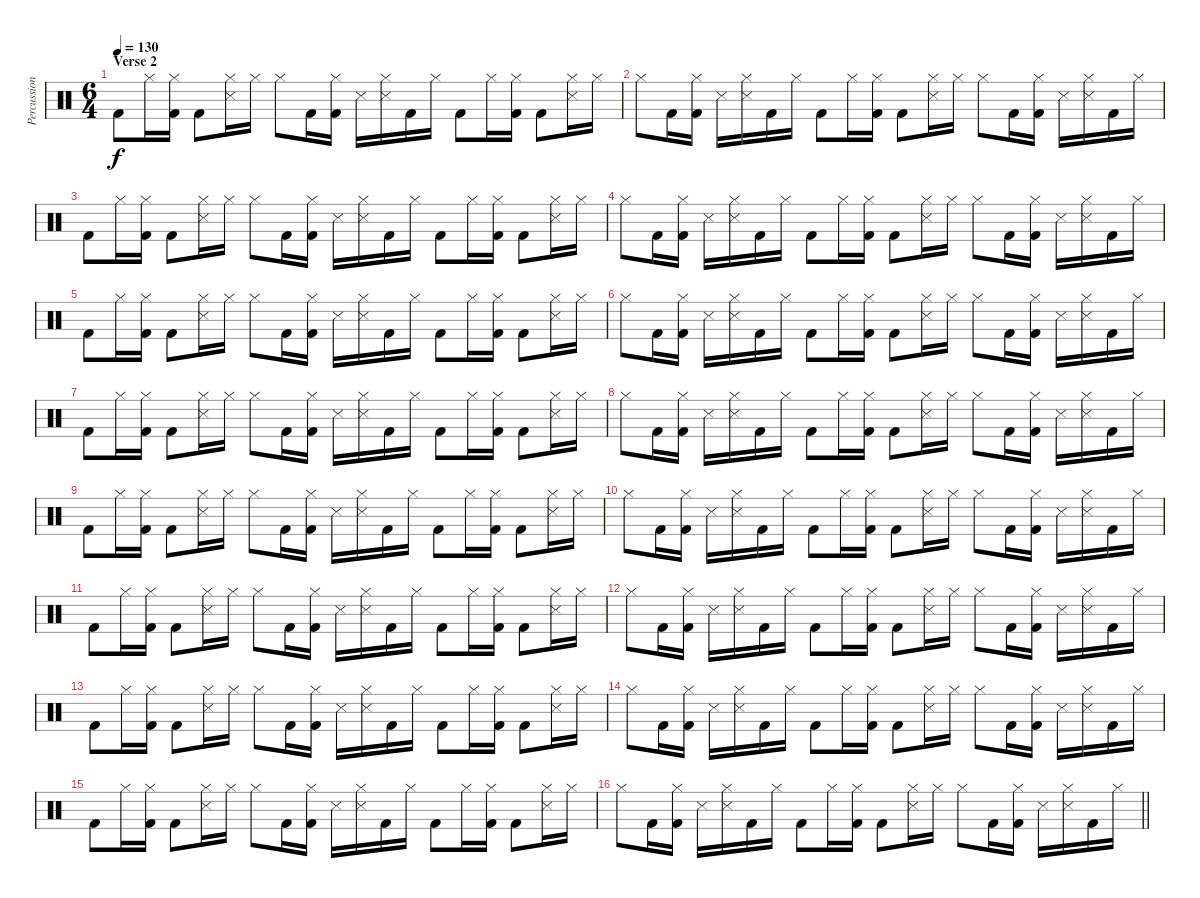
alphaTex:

\track ("Percussion" "Percussion") {instrument percussion}
\staff {score}
\articulation defaults
\ts (6 4)
\section ("" "Verse 2")
\tempo 130
\clef neutral
\ks c "Kick (hit) 2".8{dy f} "Hi-Hat (closed)".16
("Hi-Hat (closed)" "Kick (hit) 2").16 "Kick (hit) 2".8 ("Hi-Hat (closed)" "Snare (side stick) 3").16 "Hi-Hat (closed)".16 "Hi-Hat (closed)".8 "Kick (hit) 2".16 ("Hi-Hat (closed)" "Kick (hit) 2").16 "Snare (side stick) 3".16 ("Hi-Hat (closed)" "Snare (side stick) 3").16 "Kick (hit) 2".16 "Hi-Hat (closed)".16 "Kick (hit) 2".8 "Hi-Hat (closed)".16 ("Hi-Hat (closed)" "Kick (hit) 2").16 "Kick (hit) 2".8 ("Hi-Hat (closed)" "Snare (side stick) 3").16 "Hi-Hat (closed)".16 |
"Hi-Hat (closed)".8 "Kick (hit) 2".16 ("Hi-Hat (closed)" "Kick (hit) 2").16 "Snare (side stick) 3".16 ("Hi-Hat (closed)" "Snare (side stick) 3").16 "Kick (hit) 2".16 "Hi-Hat (closed)".16 "Kick (hit) 2".8 "Hi-Hat (closed)".16 ("Hi-Hat (closed)" "Kick (hit) 2").16 "Kick (hit) 2".8 ("Hi-Hat (closed)" "Snare (side stick) 3").16 "Hi-Hat (closed)".16 "Hi-Hat (closed)".8 "Kick (hit) 2".16 ("Hi-Hat (closed)" "Kick (hit) 2").16 "Snare (side stick) 3".16 ("Hi-Hat (closed)" "Snare (side stick) 3").16 "Kick (hit) 2".16 "Hi-Hat (closed)".16 |
"Kick (hit) 2".8 "Hi-Hat (closed)".16 ("Hi-Hat (closed)" "Kick (hit) 2").16 "Kick (hit) 2".8 ("Hi-Hat (closed)" "Snare (side stick) 3").16 "Hi-Hat (closed)".16 "Hi-Hat (closed)".8 "Kick (hit) 2".16 ("Hi-Hat (closed)" "Kick (hit) 2").16 "Snare (side stick) 3".16 ("Hi-Hat (closed)" "Snare (side stick) 3").16 "Kick (hit) 2".16 "Hi-Hat (closed)".16 "Kick (hit) 2".8 "Hi-Hat (closed)".16 ("Hi-Hat (closed)" "Kick (hit) 2").16 "Kick (hit) 2".8 ("Hi-Hat (closed)" "Snare (side stick) 3").16 "Hi-Hat (closed)".16 |
"Hi-Hat (closed)".8 "Kick (hit) 2".16 ("Hi-Hat (closed)" "Kick (hit) 2").16 "Snare (side stick) 3".16 ("Hi-Hat (closed)" "Snare (side stick) 3").16 "Kick (hit) 2".16 "Hi-Hat (closed)".16 "Kick (hit) 2".8 "Hi-Hat (closed)".16 ("Hi-Hat (closed)" "Kick (hit) 2").16 "Kick (hit) 2".8 ("Hi-Hat (closed)" "Snare (side stick) 3").16 "Hi-Hat (closed)".16 "Hi-Hat (closed)".8 "Kick (hit) 2".16 ("Hi-Hat (closed)" "Kick (hit) 2").16 "Snare (side stick) 3".16 ("Hi-Hat (closed)" "Snare (side stick) 3").16 "Kick (hit) 2".16 "Hi-Hat (closed)".16 |
"Kick (hit) 2".8 "Hi-Hat (closed)".16 ("Hi-Hat (closed)" "Kick (hit) 2").16 "Kick (hit) 2".8 ("Hi-Hat (closed)" "Snare (side stick) 3").16 "Hi-Hat (closed)".16 "Hi-Hat (closed)".8 "Kick (hit) 2".16 ("Hi-Hat (closed)" "Kick (hit) 2").16 "Snare (side stick) 3".16 ("Hi-Hat (closed)" "Snare (side stick) 3").16 "Kick (hit) 2".16 "Hi-Hat (closed)".16 "Kick (hit) 2".8 "Hi-Hat (closed)".16 ("Hi-Hat (closed)" "Kick (hit) 2").16 "Kick (hit) 2".8 ("Hi-Hat (closed)" "Snare (side stick) 3").16 "Hi-Hat (closed)".16 |
"Hi-Hat (closed)".8 "Kick (hit) 2".16 ("Hi-Hat (closed)" "Kick (hit) 2").16 "Snare (side stick) 3".16 ("Hi-Hat (closed)" "Snare (side stick) 3").16 "Kick (hit) 2".16 "Hi-Hat (closed)".16 "Kick (hit) 2".8 "Hi-Hat (closed)".16 ("Hi-Hat (closed)" "Kick (hit) 2").16 "Kick (hit) 2".8 ("Hi-Hat (closed)" "Snare (side stick) 3").16 "Hi-Hat (closed)".16 "Hi-Hat (closed)".8 "Kick (hit) 2".16 ("Hi-Hat (closed)" "Kick (hit) 2").16 "Snare (side stick) 3".16 ("Hi-Hat (closed)" "Snare (side stick) 3").16 "Kick (hit) 2".16 "Hi-Hat (closed)".16 |
"Kick (hit) 2".8 "Hi-Hat (closed)".16 ("Hi-Hat (closed)" "Kick (hit) 2").16 "Kick (hit) 2".8 ("Hi-Hat (closed)" "Snare (side stick) 3").16 "Hi-Hat (closed)".16 "Hi-Hat (closed)".8 "Kick (hit) 2".16 ("Hi-Hat (closed)" "Kick (hit) 2").16 "Snare (side stick) 3".16 ("Hi-Hat (closed)" "Snare (side stick) 3").16 "Kick (hit) 2".16 "Hi-Hat (closed)".16 "Kick (hit) 2".8 "Hi-Hat (closed)".16 ("Hi-Hat (closed)" "Kick (hit) 2").16 "Kick (hit) 2".8 ("Hi-Hat (closed)" "Snare (side stick) 3").16 "Hi-Hat (closed)".16 |
"Hi-Hat (closed)".8 "Kick (hit) 2".16 ("Hi-Hat (closed)" "Kick (hit) 2").16 "Snare (side stick) 3".16 ("Hi-Hat (closed)" "Snare (side stick) 3").16 "Kick (hit) 2".16 "Hi-Hat (closed)".16 "Kick (hit) 2".8 "Hi-Hat (closed)".16 ("Hi-Hat (closed)" "Kick (hit) 2").16 "Kick (hit) 2".8 ("Hi-Hat (closed)" "Snare (side stick) 3").16 "Hi-Hat (closed)".16 "Hi-Hat (closed)".8 "Kick (hit) 2".16 ("Hi-Hat (closed)" "Kick (hit) 2").16 "Snare (side stick) 3".16 ("Hi-Hat (closed)" "Snare (side stick) 3").16 "Kick (hit) 2".16 "Hi-Hat (closed)".16 |
"Kick (hit) 2".8 "Hi-Hat (closed)".16 ("Hi-Hat (closed)" "Kick (hit) 2").16 "Kick (hit) 2".8 ("Hi-Hat (closed)" "Snare (side stick) 3").16 "Hi-Hat (closed)".16 "Hi-Hat (closed)".8 "Kick (hit) 2".16 ("Hi-Hat (closed)" "Kick (hit) 2").16 "Snare (side stick) 3".16 ("Hi-Hat (closed)" "Snare (side stick) 3").16 "Kick (hit) 2".16 "Hi-Hat (closed)".16 "Kick (hit) 2".8 "Hi-Hat (closed)".16 ("Hi-Hat (closed)" "Kick (hit) 2").16 "Kick (hit) 2".8 ("Hi-Hat (closed)" "Snare (side stick) 3").16 "Hi-Hat (closed)".16 |
"Hi-Hat (closed)".8 "Kick (hit) 2".16 ("Hi-Hat (closed)" "Kick (hit) 2").16 "Snare (side stick) 3".16 ("Hi-Hat (closed)" "Snare (side stick) 3").16 "Kick (hit) 2".16 "Hi-Hat (closed)".16 "Kick (hit) 2".8 "Hi-Hat (closed)".16 ("Hi-Hat (closed)" "Kick (hit) 2").16 "Kick (hit) 2".8 ("Hi-Hat (closed)" "Snare (side stick) 3").16 "Hi-Hat (closed)".16 "Hi-Hat (closed)".8 "Kick (hit) 2".16 ("Hi-Hat (closed)" "Kick (hit) 2").16 "Snare (side stick) 3".16 ("Hi-Hat (closed)" "Snare (side stick) 3").16 "Kick (hit) 2".16 "Hi-Hat (closed)".16 |
"Kick (hit) 2".8 "Hi-Hat (closed)".16 ("Hi-Hat (closed)" "Kick (hit) 2").16 "Kick (hit) 2".8 ("Hi-Hat (closed)" "Snare (side stick) 3").16 "Hi-Hat (closed)".16 "Hi-Hat (closed)".8 "Kick (hit) 2".16 ("Hi-Hat (closed)" "Kick (hit) 2").16 "Snare (side stick) 3".16 ("Hi-Hat (closed)" "Snare (side stick) 3").16 "Kick (hit) 2".16 "Hi-Hat (closed)".16 "Kick (hit) 2".8 "Hi-Hat (closed)".16 ("Hi-Hat (closed)" "Kick (hit) 2").16 "Kick (hit) 2".8 ("Hi-Hat (closed)" "Snare (side stick) 3").16 "Hi-Hat (closed)".16 |
"Hi-Hat (closed)".8 "Kick (hit) 2".16 ("Hi-Hat (closed)" "Kick (hit) 2").16 "Snare (side stick) 3".16 ("Hi-Hat (closed)" "Snare (side stick) 3").16 "Kick (hit) 2".16 "Hi-Hat (closed)".16 "Kick (hit) 2".8 "Hi-Hat (closed)".16 ("Hi-Hat (closed)" "Kick (hit) 2").16 "Kick (hit) 2".8 ("Hi-Hat (closed)" "Snare (side stick) 3").16 "Hi-Hat (closed)".16 "Hi-Hat (closed)".8 "Kick (hit) 2".16 ("Hi-Hat (closed)" "Kick (hit) 2").16 "Snare (side stick) 3".16 ("Hi-Hat (closed)" "Snare (side stick) 3").16 "Kick (hit) 2".16 "Hi-Hat (closed)".16 |
"Kick (hit) 2".8 "Hi-Hat (closed)".16 ("Hi-Hat (closed)" "Kick (hit) 2").16 "Kick (hit) 2".8 ("Hi-Hat (closed)" "Snare (side stick) 3").16 "Hi-Hat (closed)".16 "Hi-Hat (closed)".8 "Kick (hit) 2".16 ("Hi-Hat (closed)" "Kick (hit) 2").16 "Snare (side stick) 3".16 ("Hi-Hat (closed)" "Snare (side stick) 3").16 "Kick (hit) 2".16 "Hi-Hat (closed)".16 "Kick (hit) 2".8 "Hi-Hat (closed)".16 ("Hi-Hat (closed)" "Kick (hit) 2").16 "Kick (hit) 2".8 ("Hi-Hat (closed)" "Snare (side stick) 3").16 "Hi-Hat (closed)".16 |
"Hi-Hat (closed)".8 "Kick (hit) 2".16 ("Hi-Hat (closed)" "Kick (hit) 2").16 "Snare (side stick) 3".16 ("Hi-Hat (closed)" "Snare (side stick) 3").16 "Kick (hit) 2".16 "Hi-Hat (closed)".16 "Kick (hit) 2".8 "Hi-Hat (closed)".16 ("Hi-Hat (closed)" "Kick (hit) 2").16 "Kick (hit) 2".8 ("Hi-Hat (closed)" "Snare (side stick) 3").16 "Hi-Hat (closed)".16 "Hi-Hat (closed)".8 "Kick (hit) 2".16 ("Hi-Hat (closed)" "Kick (hit) 2").16 "Snare (side stick) 3".16 ("Hi-Hat (closed)" "Snare (side stick) 3").16 "Kick (hit) 2".16 "Hi-Hat (closed)".16 |
"Kick (hit) 2".8 "Hi-Hat (closed)".16 ("Hi-Hat (closed)" "Kick (hit) 2").16 "Kick (hit) 2".8 ("Hi-Hat (closed)" "Snare (side stick) 3").16 "Hi-Hat (closed)".16 "Hi-Hat (closed)".8 "Kick (hit) 2".16 ("Hi-Hat (closed)" "Kick (hit) 2").16 "Snare (side stick) 3".16 ("Hi-Hat (closed)" "Snare (side stick) 3").16 "Kick (hit) 2".16 "Hi-Hat (closed)".16 "Kick (hit) 2".8 "Hi-Hat (closed)".16 ("Hi-Hat (closed)" "Kick (hit) 2").16 "Kick (hit) 2".8 ("Hi-Hat (closed)" "Snare (side stick) 3").16 "Hi-Hat (closed)".16 |
\barLineRight lightlight "Hi-Hat (closed)".8 "Kick (hit) 2".16
("Hi-Hat (closed)" "Kick (hit) 2").16 "Snare (side stick) 3".16 ("Hi-Hat (closed)" "Snare (side stick) 3").16 "Kick (hit) 2".16 "Hi-Hat (closed)".16 "Kick (hit) 2".8 "Hi-Hat (closed)".16 ("Hi-Hat (closed)" "Kick (hit) 2").16 "Kick (hit) 2".8 ("Hi-Hat (closed)" "Snare (side stick) 3").16 "Hi-Hat (closed)".16 "Hi-Hat (closed)".8 "Kick (hit) 2".16 ("Hi-Hat (closed)" "Kick (hit) 2").16 "Snare (side stick) 3".16 ("Hi-Hat (closed)" "Snare (side stick) 3").16 "Kick (hit) 2".16 "Hi-Hat (closed)".16
